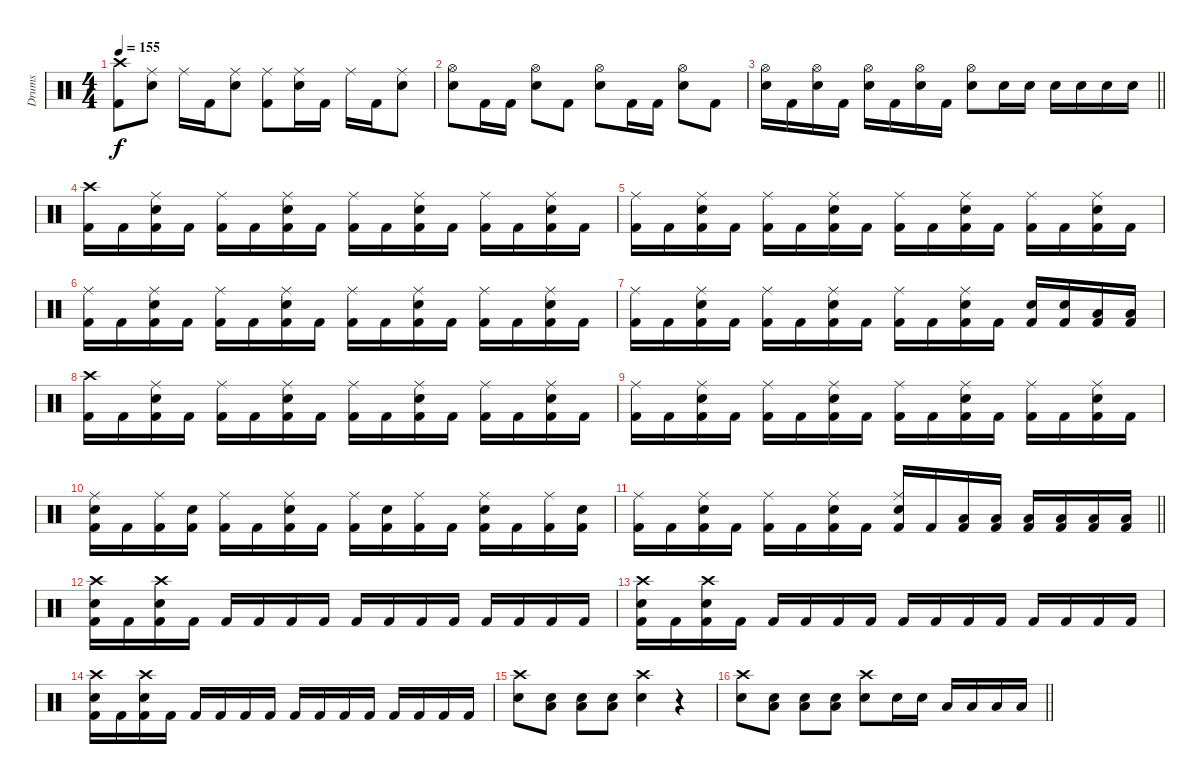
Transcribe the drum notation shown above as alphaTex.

\track ("Drums" "Drums") {instrument percussion}
\staff {score}
\articulation defaults
\ts (4 4)
\tempo 155
\clef neutral
\ks c
("Crash high (hit)" "Kick (hit) 2").8{dy f} ("Ride (middle)" "Snare (hit) 2").8 "Ride (middle)".16 "Kick (hit) 2".16 ("Ride (middle)" "Snare (hit) 2").8 ("Ride (middle)" "Kick (hit) 2").8 ("Ride (middle)" "Snare (hit) 2").16 "Kick (hit) 2".16 "Ride (middle)".16 "Kick (hit) 2".16 ("Ride (middle)" "Snare (hit) 2").8 |
("Hi-Hat (open)" "Snare (hit) 2").8 "Kick (hit) 2".16 "Kick (hit) 2".16 ("Hi-Hat (open)" "Snare (hit) 2").8 "Kick (hit) 2".8 ("Hi-Hat (open)" "Snare (hit) 2").8 "Kick (hit) 2".16 "Kick (hit) 2".16 ("Hi-Hat (open)" "Snare (hit) 2").8 "Kick (hit) 2".8 |
\barLineRight lightlight
("Hi-Hat (open)" "Snare (hit) 2").16 "Kick (hit) 2".16 ("Hi-Hat (open)" "Snare (hit) 2").16 "Kick (hit) 2".16 ("Hi-Hat (open)" "Snare (hit) 2").16 "Kick (hit) 2".16 ("Hi-Hat (open)" "Snare (hit) 2").16 "Kick (hit) 2".16 ("Hi-Hat (open)" "Snare (hit) 2").8 "Snare (hit) 2".16 "Snare (hit) 2".16 "Snare (hit) 2".16 "Snare (hit) 2".16 "Snare (hit) 2".16 "Snare (hit) 2".16 |
("Crash high (hit)" "Kick (hit) 2").16 "Kick (hit) 2".16 ("Ride (middle)" "Snare (hit) 2" "Kick (hit) 2").16 "Kick (hit) 2".16 ("Ride (middle)" "Kick (hit) 2").16 "Kick (hit) 2".16 ("Ride (middle)" "Snare (hit) 2" "Kick (hit) 2").16 "Kick (hit) 2".16 ("Ride (middle)" "Kick (hit) 2").16 "Kick (hit) 2".16 ("Ride (middle)" "Snare (hit) 2" "Kick (hit) 2").16 "Kick (hit) 2".16 ("Ride (middle)" "Kick (hit) 2").16 "Kick (hit) 2".16 ("Ride (middle)" "Snare (hit) 2" "Kick (hit) 2").16 "Kick (hit) 2".16 |
("Ride (middle)" "Kick (hit) 2").16 "Kick (hit) 2".16 ("Ride (middle)" "Snare (hit) 2" "Kick (hit) 2").16 "Kick (hit) 2".16 ("Ride (middle)" "Kick (hit) 2").16 "Kick (hit) 2".16 ("Ride (middle)" "Snare (hit) 2" "Kick (hit) 2").16 "Kick (hit) 2".16 ("Ride (middle)" "Kick (hit) 2").16 "Kick (hit) 2".16 ("Ride (middle)" "Snare (hit) 2" "Kick (hit) 2").16 "Kick (hit) 2".16 ("Ride (middle)" "Kick (hit) 2").16 "Kick (hit) 2".16 ("Ride (middle)" "Snare (hit) 2" "Kick (hit) 2").16 "Kick (hit) 2".16 |
("Ride (middle)" "Kick (hit) 2").16 "Kick (hit) 2".16 ("Ride (middle)" "Snare (hit) 2" "Kick (hit) 2").16 "Kick (hit) 2".16 ("Ride (middle)" "Kick (hit) 2").16 "Kick (hit) 2".16 ("Ride (middle)" "Snare (hit) 2" "Kick (hit) 2").16 "Kick (hit) 2".16 ("Ride (middle)" "Kick (hit) 2").16 "Kick (hit) 2".16 ("Ride (middle)" "Snare (hit) 2" "Kick (hit) 2").16 "Kick (hit) 2".16 ("Ride (middle)" "Kick (hit) 2").16 "Kick (hit) 2".16 ("Ride (middle)" "Snare (hit) 2" "Kick (hit) 2").16 "Kick (hit) 2".16 |
("Ride (middle)" "Kick (hit) 2").16 "Kick (hit) 2".16 ("Ride (middle)" "Snare (hit) 2" "Kick (hit) 2").16 "Kick (hit) 2".16 ("Ride (middle)" "Kick (hit) 2").16 "Kick (hit) 2".16 ("Ride (middle)" "Snare (hit) 2" "Kick (hit) 2").16 "Kick (hit) 2".16 ("Ride (middle)" "Kick (hit) 2").16 "Kick (hit) 2".16 ("Ride (middle)" "Snare (hit) 2" "Kick (hit) 2").16 "Kick (hit) 2".16 ("Snare (hit) 2" "Kick (hit) 2").16 ("Snare (hit) 2" "Kick (hit) 2").16 ("Low Tom (hit)" "Kick (hit) 2").16 ("Low Tom (hit)" "Kick (hit) 2").16 |
("Crash high (hit)" "Kick (hit) 2").16 "Kick (hit) 2".16 ("Ride (middle)" "Snare (hit) 2" "Kick (hit) 2").16 "Kick (hit) 2".16 ("Ride (middle)" "Kick (hit) 2").16 "Kick (hit) 2".16 ("Ride (middle)" "Snare (hit) 2" "Kick (hit) 2").16 "Kick (hit) 2".16 ("Ride (middle)" "Kick (hit) 2").16 "Kick (hit) 2".16 ("Ride (middle)" "Snare (hit) 2" "Kick (hit) 2").16 "Kick (hit) 2".16 ("Ride (middle)" "Kick (hit) 2").16 "Kick (hit) 2".16 ("Ride (middle)" "Snare (hit) 2" "Kick (hit) 2").16 "Kick (hit) 2".16 |
("Ride (middle)" "Kick (hit) 2").16 "Kick (hit) 2".16 ("Ride (middle)" "Snare (hit) 2" "Kick (hit) 2").16 "Kick (hit) 2".16 ("Ride (middle)" "Kick (hit) 2").16 "Kick (hit) 2".16 ("Ride (middle)" "Snare (hit) 2" "Kick (hit) 2").16 "Kick (hit) 2".16 ("Ride (middle)" "Kick (hit) 2").16 "Kick (hit) 2".16 ("Ride (middle)" "Snare (hit) 2" "Kick (hit) 2").16 "Kick (hit) 2".16 ("Ride (middle)" "Kick (hit) 2").16 "Kick (hit) 2".16 ("Ride (middle)" "Snare (hit) 2" "Kick (hit) 2").16 "Kick (hit) 2".16 |
("Ride (middle)" "Snare (hit) 2" "Kick (hit) 2").16 "Kick (hit) 2".16 ("Ride (middle)" "Kick (hit) 2").16 ("Snare (hit) 2" "Kick (hit) 2").16 ("Ride (middle)" "Kick (hit) 2").16 "Kick (hit) 2".16 ("Ride (middle)" "Snare (hit) 2" "Kick (hit) 2").16 "Kick (hit) 2".16 ("Ride (middle)" "Kick (hit) 2").16 ("Snare (hit) 2" "Kick (hit) 2").16 ("Ride (middle)" "Kick (hit) 2").16 "Kick (hit) 2".16 ("Ride (middle)" "Snare (hit) 2" "Kick (hit) 2").16 "Kick (hit) 2".16 ("Ride (middle)" "Kick (hit) 2").16 ("Snare (hit) 2" "Kick (hit) 2").16 |
\barLineRight lightlight
("Ride (middle)" "Kick (hit) 2").16 "Kick (hit) 2".16 ("Ride (middle)" "Snare (hit) 2" "Kick (hit) 2").16 "Kick (hit) 2".16 ("Ride (middle)" "Kick (hit) 2").16 "Kick (hit) 2".16 ("Ride (middle)" "Snare (hit) 2" "Kick (hit) 2").16 "Kick (hit) 2".16 ("Ride (middle)" "Snare (hit) 2" "Kick (hit) 2").16 "Kick (hit) 2".16 ("Low Tom (hit)" "Kick (hit) 2").16 ("Low Tom (hit)" "Kick (hit) 2").16 ("Low Floor Tom (hit)" "Kick (hit) 2").16 ("Low Floor Tom (hit)" "Kick (hit) 2").16 ("Low Floor Tom (hit)" "Kick (hit) 2").16 ("Low Floor Tom (hit)" "Kick (hit) 2").16 |
("Crash high (hit)" "Snare (hit) 2" "Kick (hit) 2").16 "Kick (hit) 2".16 ("Crash high (hit)" "Snare (hit) 2" "Kick (hit) 2").16 "Kick (hit) 2".16 "Kick (hit) 2".16 "Kick (hit) 2".16 "Kick (hit) 2".16 "Kick (hit) 2".16 "Kick (hit) 2".16 "Kick (hit) 2".16 "Kick (hit) 2".16 "Kick (hit) 2".16 "Kick (hit) 2".16 "Kick (hit) 2".16 "Kick (hit) 2".16 "Kick (hit) 2".16 |
("Crash high (hit)" "Snare (hit) 2" "Kick (hit) 2").16 "Kick (hit) 2".16 ("Crash high (hit)" "Snare (hit) 2" "Kick (hit) 2").16 "Kick (hit) 2".16 "Kick (hit) 2".16 "Kick (hit) 2".16 "Kick (hit) 2".16 "Kick (hit) 2".16 "Kick (hit) 2".16 "Kick (hit) 2".16 "Kick (hit) 2".16 "Kick (hit) 2".16 "Kick (hit) 2".16 "Kick (hit) 2".16 "Kick (hit) 2".16 "Kick (hit) 2".16 |
("Crash high (hit)" "Snare (hit) 2" "Kick (hit) 2").16 "Kick (hit) 2".16 ("Crash high (hit)" "Snare (hit) 2" "Kick (hit) 2").16 "Kick (hit) 2".16 "Kick (hit) 2".16 "Kick (hit) 2".16 "Kick (hit) 2".16 "Kick (hit) 2".16 "Kick (hit) 2".16 "Kick (hit) 2".16 "Kick (hit) 2".16 "Kick (hit) 2".16 "Kick (hit) 2".16 "Kick (hit) 2".16 "Kick (hit) 2".16 "Kick (hit) 2".16 |
("Crash high (hit)" "Snare (hit) 2").8 ("Snare (hit) 2" "Low Tom (hit)").8 ("Snare (hit) 2" "Low Tom (hit)").8 ("Snare (hit) 2" "Low Tom (hit)").8 ("Crash high (hit)" "Snare (hit) 2").4 r.4 |
\barLineRight lightlight
("Crash high (hit)" "Snare (hit) 2").8 ("Snare (hit) 2" "Low Tom (hit)").8 ("Snare (hit) 2" "Low Tom (hit)").8 ("Snare (hit) 2" "Low Tom (hit)").8 ("Crash high (hit)" "Snare (hit) 2").8 "Snare (hit) 2".16 "Snare (hit) 2".16 "Low Tom (hit)".16 "Low Tom (hit)".16 "Low Floor Tom (hit)".16 "Low Floor Tom (hit)".16
